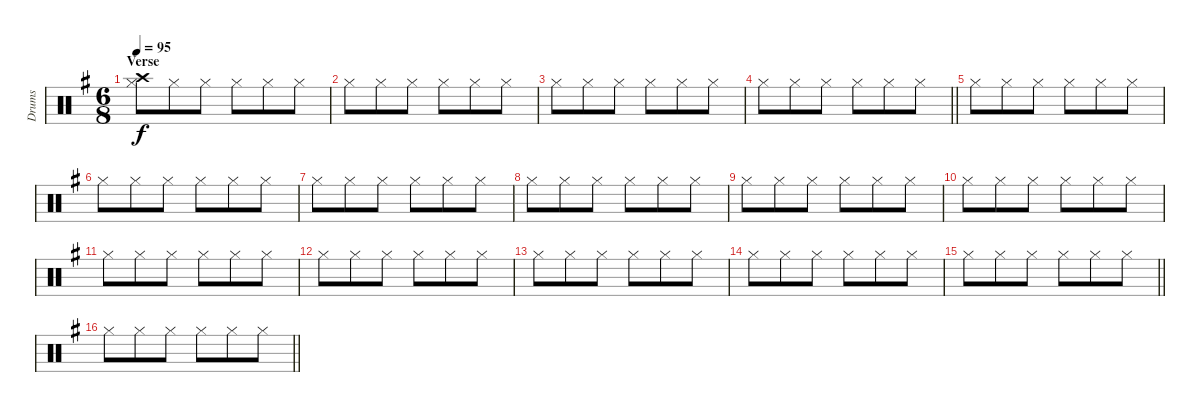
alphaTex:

\track ("Drums" "Drums") {instrument percussion}
\staff {score}
\articulation defaults
\ts (6 8)
\section ("" "Verse")
\tempo 95
\clef neutral
\ks g
("Crash high (hit)" "Hi-Hat (closed)").8{dy f} "Hi-Hat (closed)".8 "Hi-Hat (closed)".8 "Hi-Hat (closed)".8 "Hi-Hat (closed)".8 "Hi-Hat (closed)".8 |
"Hi-Hat (closed)".8 "Hi-Hat (closed)".8 "Hi-Hat (closed)".8 "Hi-Hat (closed)".8 "Hi-Hat (closed)".8 "Hi-Hat (closed)".8 |
"Hi-Hat (closed)".8 "Hi-Hat (closed)".8 "Hi-Hat (closed)".8 "Hi-Hat (closed)".8 "Hi-Hat (closed)".8 "Hi-Hat (closed)".8 |
\barLineRight lightlight "Hi-Hat (closed)".8 "Hi-Hat (closed)".8 "Hi-Hat (closed)".8 "Hi-Hat (closed)".8 "Hi-Hat (closed)".8 "Hi-Hat (closed)".8
|
\section ("" "")
"Hi-Hat (closed)".8 "Hi-Hat (closed)".8 "Hi-Hat (closed)".8 "Hi-Hat (closed)".8 "Hi-Hat (closed)".8 "Hi-Hat (closed)".8 |
"Hi-Hat (closed)".8 "Hi-Hat (closed)".8 "Hi-Hat (closed)".8 "Hi-Hat (closed)".8 "Hi-Hat (closed)".8 "Hi-Hat (closed)".8 |
"Hi-Hat (closed)".8 "Hi-Hat (closed)".8 "Hi-Hat (closed)".8 "Hi-Hat (closed)".8 "Hi-Hat (closed)".8 "Hi-Hat (closed)".8 |
"Hi-Hat (closed)".8 "Hi-Hat (closed)".8 "Hi-Hat (closed)".8 "Hi-Hat (closed)".8 "Hi-Hat (closed)".8 "Hi-Hat (closed)".8 |
"Hi-Hat (closed)".8 "Hi-Hat (closed)".8 "Hi-Hat (closed)".8 "Hi-Hat (closed)".8 "Hi-Hat (closed)".8 "Hi-Hat (closed)".8 |
"Hi-Hat (closed)".8 "Hi-Hat (closed)".8 "Hi-Hat (closed)".8 "Hi-Hat (closed)".8 "Hi-Hat (closed)".8 "Hi-Hat (closed)".8 |
"Hi-Hat (closed)".8 "Hi-Hat (closed)".8 "Hi-Hat (closed)".8 "Hi-Hat (closed)".8 "Hi-Hat (closed)".8 "Hi-Hat (closed)".8 |
"Hi-Hat (closed)".8 "Hi-Hat (closed)".8 "Hi-Hat (closed)".8 "Hi-Hat (closed)".8 "Hi-Hat (closed)".8 "Hi-Hat (closed)".8 |
"Hi-Hat (closed)".8 "Hi-Hat (closed)".8 "Hi-Hat (closed)".8 "Hi-Hat (closed)".8 "Hi-Hat (closed)".8 "Hi-Hat (closed)".8 |
"Hi-Hat (closed)".8 "Hi-Hat (closed)".8 "Hi-Hat (closed)".8 "Hi-Hat (closed)".8 "Hi-Hat (closed)".8 "Hi-Hat (closed)".8 |
\barLineRight lightlight "Hi-Hat (closed)".8 "Hi-Hat (closed)".8 "Hi-Hat (closed)".8 "Hi-Hat (closed)".8 "Hi-Hat (closed)".8 "Hi-Hat (closed)".8
|
\section ("" "")
\barLineRight lightlight "Hi-Hat (closed)".8 "Hi-Hat (closed)".8 "Hi-Hat (closed)".8 "Hi-Hat (closed)".8 "Hi-Hat (closed)".8 "Hi-Hat (closed)".8
